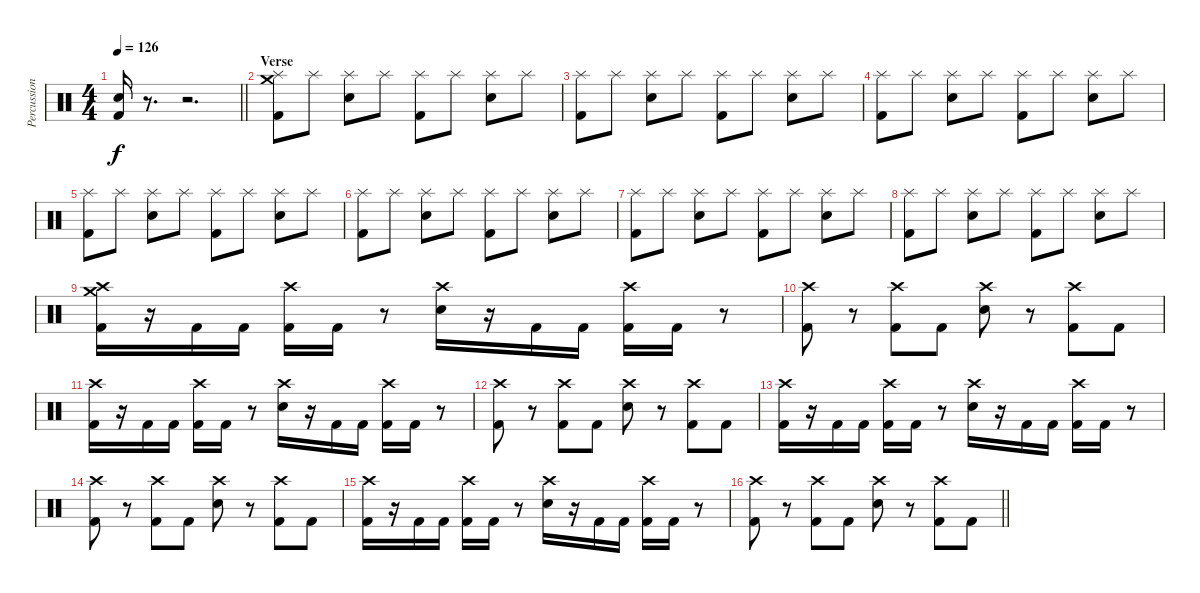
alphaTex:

\track ("Percussion" "Percussion") {instrument percussion}
\staff {score}
\articulation defaults
\ts (4 4)
\tempo 126
\clef neutral
\barLineRight lightlight
\ks c
("Electric Snare (hit)" "Kick (hit) 2").16{dy f} r.8{d} r.2{d} |
\section ("" "Verse")
("Crash medium (hit)" "Splash (hit)" "Kick (hit) 2").8 "Splash (hit)".8 ("Splash (hit)" "Electric Snare (hit)").8 "Splash (hit)".8 ("Splash (hit)" "Kick (hit) 2").8 "Splash (hit)".8 ("Splash (hit)" "Electric Snare (hit)").8 "Splash (hit)".8 |
("Splash (hit)" "Kick (hit) 2").8 "Splash (hit)".8 ("Splash (hit)" "Electric Snare (hit)").8 "Splash (hit)".8 ("Splash (hit)" "Kick (hit) 2").8 "Splash (hit)".8 ("Splash (hit)" "Electric Snare (hit)").8 "Splash (hit)".8 |
("Splash (hit)" "Kick (hit) 2").8 "Splash (hit)".8 ("Splash (hit)" "Electric Snare (hit)").8 "Splash (hit)".8 ("Splash (hit)" "Kick (hit) 2").8 "Splash (hit)".8 ("Splash (hit)" "Electric Snare (hit)").8 "Splash (hit)".8 |
("Splash (hit)" "Kick (hit) 2").8 "Splash (hit)".8 ("Splash (hit)" "Electric Snare (hit)").8 "Splash (hit)".8 ("Splash (hit)" "Kick (hit) 2").8 "Splash (hit)".8 ("Splash (hit)" "Electric Snare (hit)").8 "Splash (hit)".8 |
("Splash (hit)" "Kick (hit) 2").8 "Splash (hit)".8 ("Splash (hit)" "Electric Snare (hit)").8 "Splash (hit)".8 ("Splash (hit)" "Kick (hit) 2").8 "Splash (hit)".8 ("Splash (hit)" "Electric Snare (hit)").8 "Splash (hit)".8 |
("Splash (hit)" "Kick (hit) 2").8 "Splash (hit)".8 ("Splash (hit)" "Electric Snare (hit)").8 "Splash (hit)".8 ("Splash (hit)" "Kick (hit) 2").8 "Splash (hit)".8 ("Splash (hit)" "Electric Snare (hit)").8 "Splash (hit)".8 |
("Splash (hit)" "Kick (hit) 2").8 "Splash (hit)".8 ("Splash (hit)" "Electric Snare (hit)").8 "Splash (hit)".8 ("Splash (hit)" "Kick (hit) 2").8 "Splash (hit)".8 ("Splash (hit)" "Electric Snare (hit)").8 "Splash (hit)".8 |
("Crash high (hit)" "Crash medium (hit)" "Kick (hit) 2").16 r.16 "Kick (hit) 2".16 "Kick (hit) 2".16 ("Crash high (hit)" "Kick (hit) 2").16 "Kick (hit) 2".16 r.8 ("Crash high (hit)" "Electric Snare (hit)").16 r.16 "Kick (hit) 2".16 "Kick (hit) 2".16 ("Crash high (hit)" "Kick (hit) 2").16 "Kick (hit) 2".16 r.8 |
("Crash high (hit)" "Kick (hit) 2").8 r.8 ("Crash high (hit)" "Kick (hit) 2").8 "Kick (hit) 2".8 ("Crash high (hit)" "Electric Snare (hit)").8 r.8 ("Crash high (hit)" "Kick (hit) 2").8 "Kick (hit) 2".8 |
("Crash high (hit)" "Kick (hit) 2").16 r.16 "Kick (hit) 2".16 "Kick (hit) 2".16 ("Crash high (hit)" "Kick (hit) 2").16 "Kick (hit) 2".16 r.8 ("Crash high (hit)" "Electric Snare (hit)").16 r.16 "Kick (hit) 2".16 "Kick (hit) 2".16 ("Crash high (hit)" "Kick (hit) 2").16 "Kick (hit) 2".16 r.8 |
("Crash high (hit)" "Kick (hit) 2").8 r.8 ("Crash high (hit)" "Kick (hit) 2").8 "Kick (hit) 2".8 ("Crash high (hit)" "Electric Snare (hit)").8 r.8 ("Crash high (hit)" "Kick (hit) 2").8 "Kick (hit) 2".8 |
("Crash high (hit)" "Kick (hit) 2").16 r.16 "Kick (hit) 2".16 "Kick (hit) 2".16 ("Crash high (hit)" "Kick (hit) 2").16 "Kick (hit) 2".16 r.8 ("Crash high (hit)" "Electric Snare (hit)").16 r.16 "Kick (hit) 2".16 "Kick (hit) 2".16 ("Crash high (hit)" "Kick (hit) 2").16 "Kick (hit) 2".16 r.8 |
("Crash high (hit)" "Kick (hit) 2").8 r.8 ("Crash high (hit)" "Kick (hit) 2").8 "Kick (hit) 2".8 ("Crash high (hit)" "Electric Snare (hit)").8 r.8 ("Crash high (hit)" "Kick (hit) 2").8 "Kick (hit) 2".8 |
("Crash high (hit)" "Kick (hit) 2").16 r.16 "Kick (hit) 2".16 "Kick (hit) 2".16 ("Crash high (hit)" "Kick (hit) 2").16 "Kick (hit) 2".16 r.8 ("Crash high (hit)" "Electric Snare (hit)").16 r.16 "Kick (hit) 2".16 "Kick (hit) 2".16 ("Crash high (hit)" "Kick (hit) 2").16 "Kick (hit) 2".16 r.8 |
\barLineRight lightlight
("Crash high (hit)" "Kick (hit) 2").8 r.8 ("Crash high (hit)" "Kick (hit) 2").8 "Kick (hit) 2".8 ("Crash high (hit)" "Electric Snare (hit)").8 r.8 ("Crash high (hit)" "Kick (hit) 2").8 "Kick (hit) 2".8
